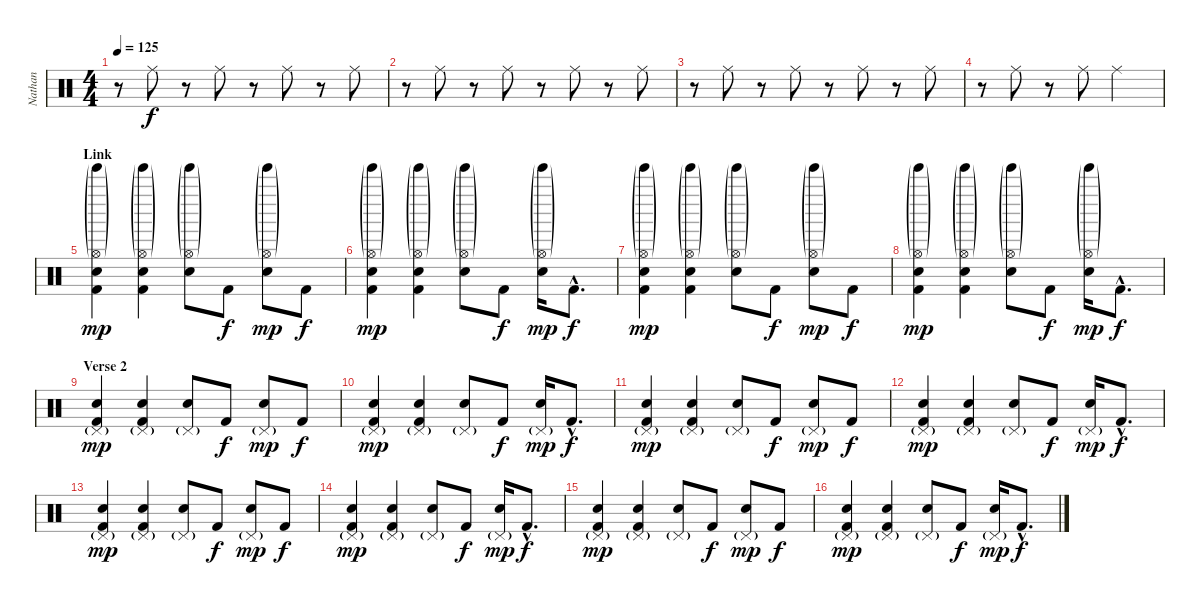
\track ("Nathan" "Nathan") {instrument percussion}
\staff {score}
\articulation defaults
\ts (4 4)
\tempo 125
\clef neutral
\ks c
r.8{dy f} "Ride (middle)".8 r.8 "Ride (middle)".8 r.8 "Ride (middle)".8 r.8 "Ride (middle)".8 |
r.8 "Ride (middle)".8 r.8 "Ride (middle)".8 r.8 "Ride (middle)".8 r.8 "Ride (middle)".8 |
r.8 "Ride (middle)".8 r.8 "Ride (middle)".8 r.8 "Ride (middle)".8 r.8 "Ride (middle)".8 |
r.8 "Ride (middle)".8 r.8 "Ride (middle)".8 "Ride (middle)".2 |
\section ("" "Link")
("Hi-Hat (open)"{g} "Tinkle Bell (hit)"{g} "Electric Snare (hit)" "Kick (hit) 2").4{dy mp} ("Hi-Hat (open)"{g} "Tinkle Bell (hit)"{g} "Electric Snare (hit)" "Kick (hit) 2").4 ("Hi-Hat (open)"{g} "Tinkle Bell (hit)"{g} "Electric Snare (hit)").8 "Kick (hit) 2".8{dy f} ("Hi-Hat (open)"{g} "Tinkle Bell (hit)"{g} "Electric Snare (hit)").8{dy mp} "Kick (hit) 2".8{dy f} |
("Hi-Hat (open)"{g} "Tinkle Bell (hit)"{g} "Electric Snare (hit)" "Kick (hit) 2").4{dy mp} ("Hi-Hat (open)"{g} "Tinkle Bell (hit)"{g} "Electric Snare (hit)" "Kick (hit) 2").4 ("Hi-Hat (open)"{g} "Tinkle Bell (hit)"{g} "Electric Snare (hit)").8 "Kick (hit) 2".8{dy f} ("Hi-Hat (open)"{g} "Tinkle Bell (hit)"{g} "Electric Snare (hit)").16{dy mp} "Kick (hit) 2"{hac}.8{d dy f} |
("Hi-Hat (open)"{g} "Tinkle Bell (hit)"{g} "Electric Snare (hit)" "Kick (hit) 2").4{dy mp} ("Hi-Hat (open)"{g} "Tinkle Bell (hit)"{g} "Electric Snare (hit)" "Kick (hit) 2").4 ("Hi-Hat (open)"{g} "Tinkle Bell (hit)"{g} "Electric Snare (hit)").8 "Kick (hit) 2".8{dy f} ("Hi-Hat (open)"{g} "Tinkle Bell (hit)"{g} "Electric Snare (hit)").8{dy mp} "Kick (hit) 2".8{dy f} |
("Hi-Hat (open)"{g} "Tinkle Bell (hit)"{g} "Electric Snare (hit)" "Kick (hit) 2").4{dy mp} ("Hi-Hat (open)"{g} "Tinkle Bell (hit)"{g} "Electric Snare (hit)" "Kick (hit) 2").4 ("Hi-Hat (open)"{g} "Tinkle Bell (hit)"{g} "Electric Snare (hit)").8 "Kick (hit) 2".8{dy f} ("Hi-Hat (open)"{g} "Tinkle Bell (hit)"{g} "Electric Snare (hit)").16{dy mp} "Kick (hit) 2"{hac}.8{d dy f} |
\section ("" "Verse 2")
("Pedal Hi-Hat (hit)"{g} "Electric Snare (hit)" "Kick (hit) 2").4{dy mp} ("Pedal Hi-Hat (hit)"{g} "Electric Snare (hit)" "Kick (hit) 2").4 ("Pedal Hi-Hat (hit)"{g} "Electric Snare (hit)").8 "Kick (hit) 2".8{dy f} ("Pedal Hi-Hat (hit)"{g} "Electric Snare (hit)").8{dy mp} "Kick (hit) 2".8{dy f} |
("Pedal Hi-Hat (hit)"{g} "Electric Snare (hit)" "Kick (hit) 2").4{dy mp} ("Pedal Hi-Hat (hit)"{g} "Electric Snare (hit)" "Kick (hit) 2").4 ("Pedal Hi-Hat (hit)"{g} "Electric Snare (hit)").8 "Kick (hit) 2".8{dy f} ("Pedal Hi-Hat (hit)"{g} "Electric Snare (hit)").16{dy mp} "Kick (hit) 2"{hac}.8{d dy f} |
("Pedal Hi-Hat (hit)"{g} "Electric Snare (hit)" "Kick (hit) 2").4{dy mp} ("Pedal Hi-Hat (hit)"{g} "Electric Snare (hit)" "Kick (hit) 2").4 ("Pedal Hi-Hat (hit)"{g} "Electric Snare (hit)").8 "Kick (hit) 2".8{dy f} ("Pedal Hi-Hat (hit)"{g} "Electric Snare (hit)").8{dy mp} "Kick (hit) 2".8{dy f} |
("Pedal Hi-Hat (hit)"{g} "Electric Snare (hit)" "Kick (hit) 2").4{dy mp} ("Pedal Hi-Hat (hit)"{g} "Electric Snare (hit)" "Kick (hit) 2").4 ("Pedal Hi-Hat (hit)"{g} "Electric Snare (hit)").8 "Kick (hit) 2".8{dy f} ("Pedal Hi-Hat (hit)"{g} "Electric Snare (hit)").16{dy mp} "Kick (hit) 2"{hac}.8{d dy f} |
("Pedal Hi-Hat (hit)"{g} "Electric Snare (hit)" "Kick (hit) 2").4{dy mp} ("Pedal Hi-Hat (hit)"{g} "Electric Snare (hit)" "Kick (hit) 2").4 ("Pedal Hi-Hat (hit)"{g} "Electric Snare (hit)").8 "Kick (hit) 2".8{dy f} ("Pedal Hi-Hat (hit)"{g} "Electric Snare (hit)").8{dy mp} "Kick (hit) 2".8{dy f} |
("Pedal Hi-Hat (hit)"{g} "Electric Snare (hit)" "Kick (hit) 2").4{dy mp} ("Pedal Hi-Hat (hit)"{g} "Electric Snare (hit)" "Kick (hit) 2").4 ("Pedal Hi-Hat (hit)"{g} "Electric Snare (hit)").8 "Kick (hit) 2".8{dy f} ("Pedal Hi-Hat (hit)"{g} "Electric Snare (hit)").16{dy mp} "Kick (hit) 2"{hac}.8{d dy f} |
("Pedal Hi-Hat (hit)"{g} "Electric Snare (hit)" "Kick (hit) 2").4{dy mp} ("Pedal Hi-Hat (hit)"{g} "Electric Snare (hit)" "Kick (hit) 2").4 ("Pedal Hi-Hat (hit)"{g} "Electric Snare (hit)").8 "Kick (hit) 2".8{dy f} ("Pedal Hi-Hat (hit)"{g} "Electric Snare (hit)").8{dy mp} "Kick (hit) 2".8{dy f} |
("Pedal Hi-Hat (hit)"{g} "Electric Snare (hit)" "Kick (hit) 2").4{dy mp} ("Pedal Hi-Hat (hit)"{g} "Electric Snare (hit)" "Kick (hit) 2").4 ("Pedal Hi-Hat (hit)"{g} "Electric Snare (hit)").8 "Kick (hit) 2".8{dy f} ("Pedal Hi-Hat (hit)"{g} "Electric Snare (hit)").16{dy mp} "Kick (hit) 2"{hac}.8{d dy f}
